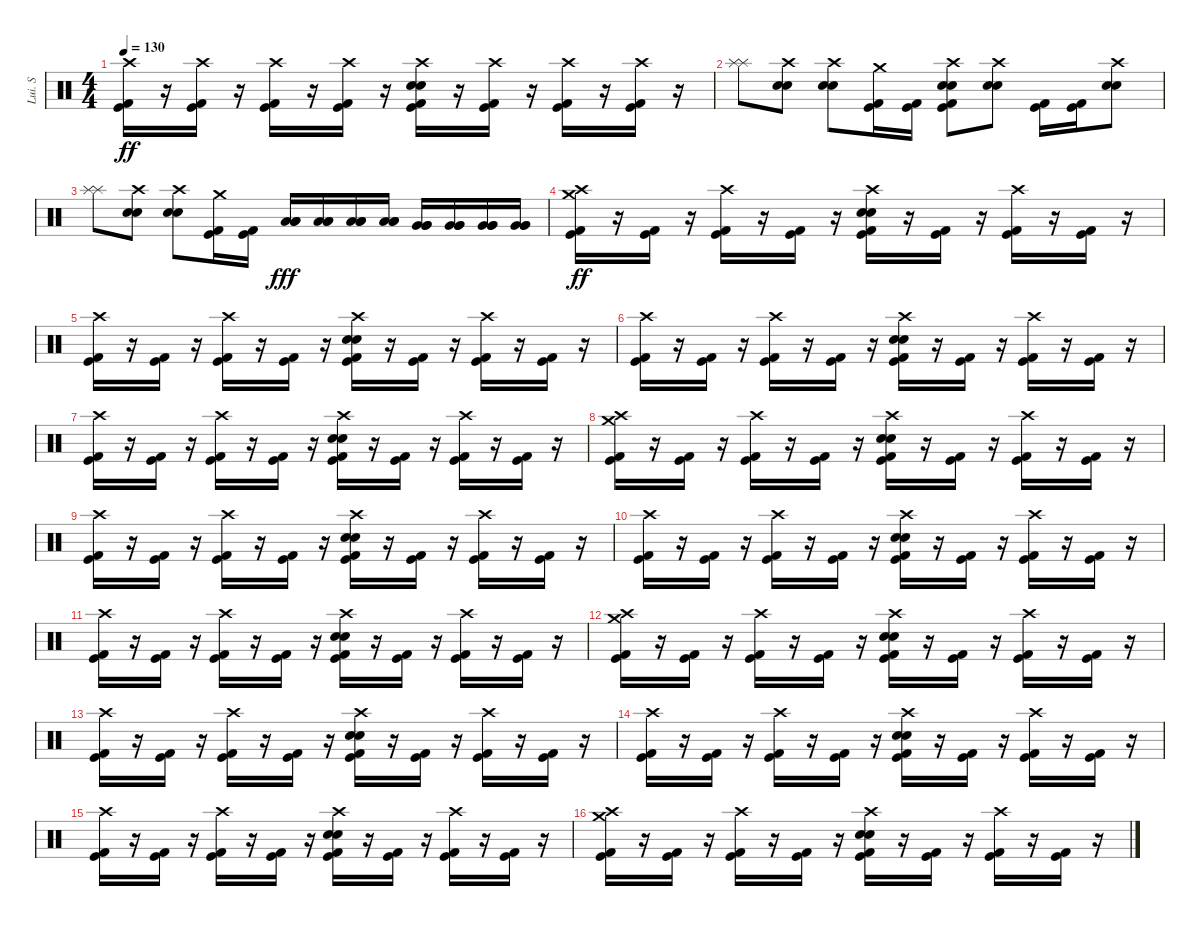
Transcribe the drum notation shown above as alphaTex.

\track ("Lui. S" "Lui. S") {instrument percussion}
\staff {score}
\articulation defaults
\ts (4 4)
\tempo 130
\clef neutral
\ks c
("Crash high (hit)" "Kick (hit)" "Kick (hit) 2").16{dy ff} r.16 ("Crash high (hit)" "Kick (hit)" "Kick (hit) 2").16 r.16 ("Crash high (hit)" "Kick (hit)" "Kick (hit) 2").16 r.16 ("Crash high (hit)" "Kick (hit)" "Kick (hit) 2").16 r.16 ("Crash high (hit)" "Electric Snare (hit)" "Snare (hit) 2" "Kick (hit)" "Kick (hit) 2").16 r.16 ("Crash high (hit)" "Kick (hit)" "Kick (hit) 2").16 r.16 ("Crash high (hit)" "Kick (hit)" "Kick (hit) 2").16 r.16 ("Crash high (hit)" "Kick (hit)" "Kick (hit) 2").16 r.16 |
("Splash (hit)" "Splash (hit)").8 ("Crash high (hit)" "Snare (hit) 2" "Electric Snare (hit)").8 ("Crash high (hit)" "Snare (hit) 2" "Electric Snare (hit)").8 ("Crash medium (hit)" "Kick (hit)" "Kick (hit) 2").16 ("Kick (hit)" "Kick (hit) 2").16 ("Crash high (hit)" "Snare (hit) 2" "Electric Snare (hit)" "Kick (hit)" "Kick (hit) 2").8 ("Crash high (hit)" "Snare (hit) 2" "Electric Snare (hit)").8 ("Kick (hit)" "Kick (hit) 2").16 ("Kick (hit)" "Kick (hit) 2").16 ("Crash high (hit)" "Electric Snare (hit)" "Snare (hit) 2").8 |
("Splash (hit)" "Splash (hit)").8 ("Crash high (hit)" "Snare (hit) 2" "Electric Snare (hit)").8 ("Crash high (hit)" "Snare (hit) 2" "Electric Snare (hit)").8 ("Crash medium (hit)" "Kick (hit)" "Kick (hit) 2").16 ("Kick (hit)" "Kick (hit) 2").16 ("Low Tom (hit)" "Low Tom (hit)" "Low Tom (hit)").16{dy fff} ("Low Tom (hit)" "Low Tom (hit)" "Low Tom (hit)").16 ("Low Tom (hit)" "Low Tom (hit)" "Low Tom (hit)").16 ("Low Tom (hit)" "Low Tom (hit)" "Low Tom (hit)").16 ("Very Low Tom (hit)" "Very Low Tom (hit)" "Very Low Tom (hit)").16 ("Very Low Tom (hit)" "Very Low Tom (hit)" "Very Low Tom (hit)").16 ("Very Low Tom (hit)" "Very Low Tom (hit)" "Very Low Tom (hit)").16 ("Very Low Tom (hit)" "Very Low Tom (hit)" "Very Low Tom (hit)").16 |
("Crash high (hit)" "Crash medium (hit)" "Kick (hit)" "Kick (hit) 2").16{dy ff} r.16 ("Kick (hit)" "Kick (hit) 2").16 r.16 ("Crash high (hit)" "Kick (hit)" "Kick (hit) 2").16 r.16 ("Kick (hit)" "Kick (hit) 2").16 r.16 ("Crash high (hit)" "Electric Snare (hit)" "Snare (hit) 2" "Kick (hit)" "Kick (hit) 2").16 r.16 ("Kick (hit)" "Kick (hit) 2").16 r.16 ("Crash high (hit)" "Kick (hit)" "Kick (hit) 2").16 r.16 ("Kick (hit)" "Kick (hit) 2").16 r.16 |
("Crash high (hit)" "Kick (hit)" "Kick (hit) 2").16 r.16 ("Kick (hit)" "Kick (hit) 2").16 r.16 ("Crash high (hit)" "Kick (hit)" "Kick (hit) 2").16 r.16 ("Kick (hit)" "Kick (hit) 2").16 r.16 ("Crash high (hit)" "Electric Snare (hit)" "Snare (hit) 2" "Kick (hit)" "Kick (hit) 2").16 r.16 ("Kick (hit)" "Kick (hit) 2").16 r.16 ("Crash high (hit)" "Kick (hit)" "Kick (hit) 2").16 r.16 ("Kick (hit)" "Kick (hit) 2").16 r.16 |
("Crash high (hit)" "Kick (hit)" "Kick (hit) 2").16 r.16 ("Kick (hit)" "Kick (hit) 2").16 r.16 ("Crash high (hit)" "Kick (hit)" "Kick (hit) 2").16 r.16 ("Kick (hit)" "Kick (hit) 2").16 r.16 ("Crash high (hit)" "Electric Snare (hit)" "Snare (hit) 2" "Kick (hit)" "Kick (hit) 2").16 r.16 ("Kick (hit)" "Kick (hit) 2").16 r.16 ("Crash high (hit)" "Kick (hit)" "Kick (hit) 2").16 r.16 ("Kick (hit)" "Kick (hit) 2").16 r.16 |
("Crash high (hit)" "Kick (hit)" "Kick (hit) 2").16 r.16 ("Kick (hit)" "Kick (hit) 2").16 r.16 ("Crash high (hit)" "Kick (hit)" "Kick (hit) 2").16 r.16 ("Kick (hit)" "Kick (hit) 2").16 r.16 ("Crash high (hit)" "Electric Snare (hit)" "Snare (hit) 2" "Kick (hit)" "Kick (hit) 2").16 r.16 ("Kick (hit)" "Kick (hit) 2").16 r.16 ("Crash high (hit)" "Kick (hit)" "Kick (hit) 2").16 r.16 ("Kick (hit)" "Kick (hit) 2").16 r.16 |
("Crash high (hit)" "Crash medium (hit)" "Kick (hit)" "Kick (hit) 2").16 r.16 ("Kick (hit)" "Kick (hit) 2").16 r.16 ("Crash high (hit)" "Kick (hit)" "Kick (hit) 2").16 r.16 ("Kick (hit)" "Kick (hit) 2").16 r.16 ("Crash high (hit)" "Electric Snare (hit)" "Snare (hit) 2" "Kick (hit)" "Kick (hit) 2").16 r.16 ("Kick (hit)" "Kick (hit) 2").16 r.16 ("Crash high (hit)" "Kick (hit)" "Kick (hit) 2").16 r.16 ("Kick (hit)" "Kick (hit) 2").16 r.16 |
("Crash high (hit)" "Kick (hit)" "Kick (hit) 2").16 r.16 ("Kick (hit)" "Kick (hit) 2").16 r.16 ("Crash high (hit)" "Kick (hit)" "Kick (hit) 2").16 r.16 ("Kick (hit)" "Kick (hit) 2").16 r.16 ("Crash high (hit)" "Electric Snare (hit)" "Snare (hit) 2" "Kick (hit)" "Kick (hit) 2").16 r.16 ("Kick (hit)" "Kick (hit) 2").16 r.16 ("Crash high (hit)" "Kick (hit)" "Kick (hit) 2").16 r.16 ("Kick (hit)" "Kick (hit) 2").16 r.16 |
("Crash high (hit)" "Kick (hit)" "Kick (hit) 2").16 r.16 ("Kick (hit)" "Kick (hit) 2").16 r.16 ("Crash high (hit)" "Kick (hit)" "Kick (hit) 2").16 r.16 ("Kick (hit)" "Kick (hit) 2").16 r.16 ("Crash high (hit)" "Electric Snare (hit)" "Snare (hit) 2" "Kick (hit)" "Kick (hit) 2").16 r.16 ("Kick (hit)" "Kick (hit) 2").16 r.16 ("Crash high (hit)" "Kick (hit)" "Kick (hit) 2").16 r.16 ("Kick (hit)" "Kick (hit) 2").16 r.16 |
("Crash high (hit)" "Kick (hit)" "Kick (hit) 2").16 r.16 ("Kick (hit)" "Kick (hit) 2").16 r.16 ("Crash high (hit)" "Kick (hit)" "Kick (hit) 2").16 r.16 ("Kick (hit)" "Kick (hit) 2").16 r.16 ("Crash high (hit)" "Electric Snare (hit)" "Snare (hit) 2" "Kick (hit)" "Kick (hit) 2").16 r.16 ("Kick (hit)" "Kick (hit) 2").16 r.16 ("Crash high (hit)" "Kick (hit)" "Kick (hit) 2").16 r.16 ("Kick (hit)" "Kick (hit) 2").16 r.16 |
("Crash high (hit)" "Crash medium (hit)" "Kick (hit)" "Kick (hit) 2").16 r.16 ("Kick (hit)" "Kick (hit) 2").16 r.16 ("Crash high (hit)" "Kick (hit)" "Kick (hit) 2").16 r.16 ("Kick (hit)" "Kick (hit) 2").16 r.16 ("Crash high (hit)" "Electric Snare (hit)" "Snare (hit) 2" "Kick (hit)" "Kick (hit) 2").16 r.16 ("Kick (hit)" "Kick (hit) 2").16 r.16 ("Crash high (hit)" "Kick (hit)" "Kick (hit) 2").16 r.16 ("Kick (hit)" "Kick (hit) 2").16 r.16 |
("Crash high (hit)" "Kick (hit)" "Kick (hit) 2").16 r.16 ("Kick (hit)" "Kick (hit) 2").16 r.16 ("Crash high (hit)" "Kick (hit)" "Kick (hit) 2").16 r.16 ("Kick (hit)" "Kick (hit) 2").16 r.16 ("Crash high (hit)" "Electric Snare (hit)" "Snare (hit) 2" "Kick (hit)" "Kick (hit) 2").16 r.16 ("Kick (hit)" "Kick (hit) 2").16 r.16 ("Crash high (hit)" "Kick (hit)" "Kick (hit) 2").16 r.16 ("Kick (hit)" "Kick (hit) 2").16 r.16 |
("Crash high (hit)" "Kick (hit)" "Kick (hit) 2").16 r.16 ("Kick (hit)" "Kick (hit) 2").16 r.16 ("Crash high (hit)" "Kick (hit)" "Kick (hit) 2").16 r.16 ("Kick (hit)" "Kick (hit) 2").16 r.16 ("Crash high (hit)" "Electric Snare (hit)" "Snare (hit) 2" "Kick (hit)" "Kick (hit) 2").16 r.16 ("Kick (hit)" "Kick (hit) 2").16 r.16 ("Crash high (hit)" "Kick (hit)" "Kick (hit) 2").16 r.16 ("Kick (hit)" "Kick (hit) 2").16 r.16 |
("Crash high (hit)" "Kick (hit)" "Kick (hit) 2").16 r.16 ("Kick (hit)" "Kick (hit) 2").16 r.16 ("Crash high (hit)" "Kick (hit)" "Kick (hit) 2").16 r.16 ("Kick (hit)" "Kick (hit) 2").16 r.16 ("Crash high (hit)" "Electric Snare (hit)" "Snare (hit) 2" "Kick (hit)" "Kick (hit) 2").16 r.16 ("Kick (hit)" "Kick (hit) 2").16 r.16 ("Crash high (hit)" "Kick (hit)" "Kick (hit) 2").16 r.16 ("Kick (hit)" "Kick (hit) 2").16 r.16 |
("Crash high (hit)" "Crash medium (hit)" "Kick (hit)" "Kick (hit) 2").16 r.16 ("Kick (hit)" "Kick (hit) 2").16 r.16 ("Crash high (hit)" "Kick (hit)" "Kick (hit) 2").16 r.16 ("Kick (hit)" "Kick (hit) 2").16 r.16 ("Crash high (hit)" "Electric Snare (hit)" "Snare (hit) 2" "Kick (hit)" "Kick (hit) 2").16 r.16 ("Kick (hit)" "Kick (hit) 2").16 r.16 ("Crash high (hit)" "Kick (hit)" "Kick (hit) 2").16 r.16 ("Kick (hit)" "Kick (hit) 2").16 r.16
